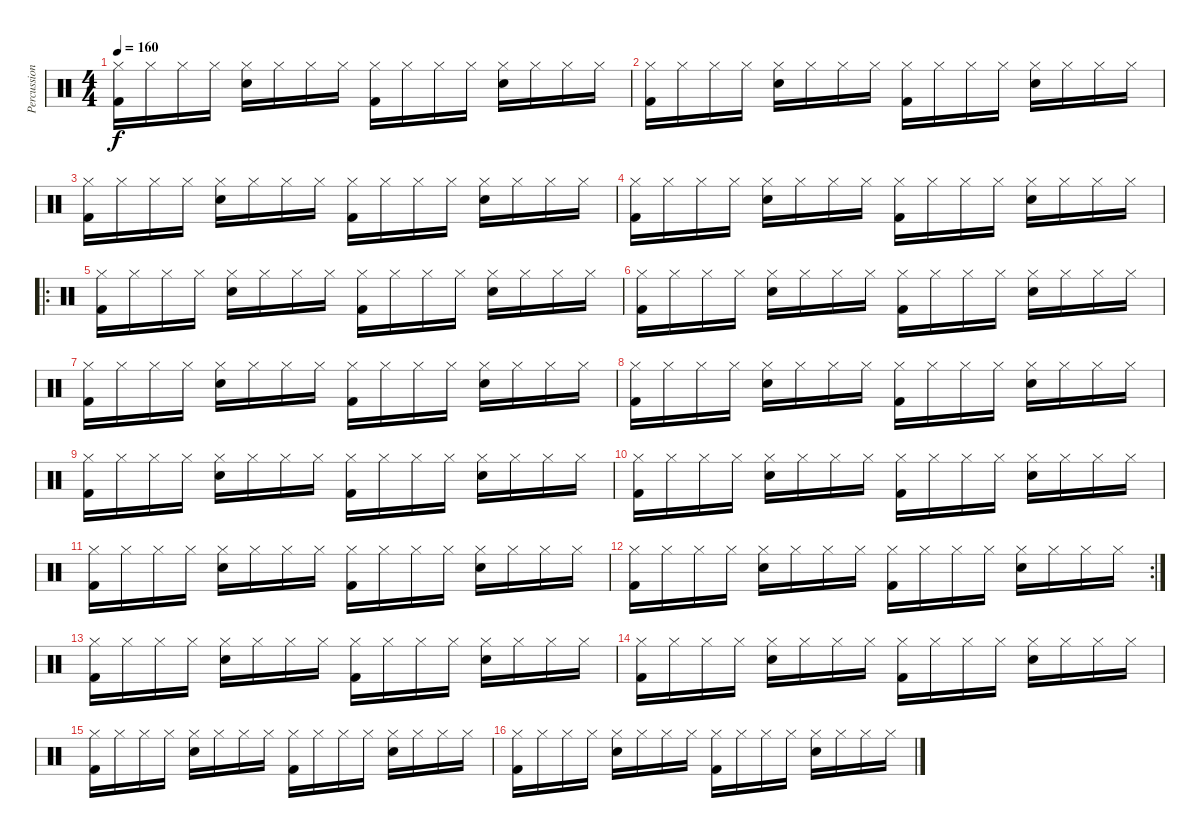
\track ("Percussion" "Percussion") {instrument percussion}
\staff {score}
\articulation defaults
\ts (4 4)
\tempo 160
\clef neutral
\ks c
("Hi-Hat (closed)" "Kick (hit) 2").16{dy f} "Hi-Hat (closed)".16 "Hi-Hat (closed)".16 "Hi-Hat (closed)".16 ("Hi-Hat (closed)" "Snare (hit) 2").16 "Hi-Hat (closed)".16 "Hi-Hat (closed)".16 "Hi-Hat (closed)".16 ("Hi-Hat (closed)" "Kick (hit) 2").16 "Hi-Hat (closed)".16 "Hi-Hat (closed)".16 "Hi-Hat (closed)".16 ("Hi-Hat (closed)" "Snare (hit) 2").16 "Hi-Hat (closed)".16 "Hi-Hat (closed)".16 "Hi-Hat (closed)".16 |
("Hi-Hat (closed)" "Kick (hit) 2").16 "Hi-Hat (closed)".16 "Hi-Hat (closed)".16 "Hi-Hat (closed)".16 ("Hi-Hat (closed)" "Snare (hit) 2").16 "Hi-Hat (closed)".16 "Hi-Hat (closed)".16 "Hi-Hat (closed)".16 ("Hi-Hat (closed)" "Kick (hit) 2").16 "Hi-Hat (closed)".16 "Hi-Hat (closed)".16 "Hi-Hat (closed)".16 ("Hi-Hat (closed)" "Snare (hit) 2").16 "Hi-Hat (closed)".16 "Hi-Hat (closed)".16 "Hi-Hat (closed)".16 |
("Hi-Hat (closed)" "Kick (hit) 2").16 "Hi-Hat (closed)".16 "Hi-Hat (closed)".16 "Hi-Hat (closed)".16 ("Hi-Hat (closed)" "Snare (hit) 2").16 "Hi-Hat (closed)".16 "Hi-Hat (closed)".16 "Hi-Hat (closed)".16 ("Hi-Hat (closed)" "Kick (hit) 2").16 "Hi-Hat (closed)".16 "Hi-Hat (closed)".16 "Hi-Hat (closed)".16 ("Hi-Hat (closed)" "Snare (hit) 2").16 "Hi-Hat (closed)".16 "Hi-Hat (closed)".16 "Hi-Hat (closed)".16 |
("Hi-Hat (closed)" "Kick (hit) 2").16 "Hi-Hat (closed)".16 "Hi-Hat (closed)".16 "Hi-Hat (closed)".16 ("Hi-Hat (closed)" "Snare (hit) 2").16 "Hi-Hat (closed)".16 "Hi-Hat (closed)".16 "Hi-Hat (closed)".16 ("Hi-Hat (closed)" "Kick (hit) 2").16 "Hi-Hat (closed)".16 "Hi-Hat (closed)".16 "Hi-Hat (closed)".16 ("Hi-Hat (closed)" "Snare (hit) 2").16 "Hi-Hat (closed)".16 "Hi-Hat (closed)".16 "Hi-Hat (closed)".16 |
\ro
("Hi-Hat (closed)" "Kick (hit) 2").16 "Hi-Hat (closed)".16 "Hi-Hat (closed)".16 "Hi-Hat (closed)".16 ("Hi-Hat (closed)" "Snare (hit) 2").16 "Hi-Hat (closed)".16 "Hi-Hat (closed)".16 "Hi-Hat (closed)".16 ("Hi-Hat (closed)" "Kick (hit) 2").16 "Hi-Hat (closed)".16 "Hi-Hat (closed)".16 "Hi-Hat (closed)".16 ("Hi-Hat (closed)" "Snare (hit) 2").16 "Hi-Hat (closed)".16 "Hi-Hat (closed)".16 "Hi-Hat (closed)".16 |
("Hi-Hat (closed)" "Kick (hit) 2").16 "Hi-Hat (closed)".16 "Hi-Hat (closed)".16 "Hi-Hat (closed)".16 ("Hi-Hat (closed)" "Snare (hit) 2").16 "Hi-Hat (closed)".16 "Hi-Hat (closed)".16 "Hi-Hat (closed)".16 ("Hi-Hat (closed)" "Kick (hit) 2").16 "Hi-Hat (closed)".16 "Hi-Hat (closed)".16 "Hi-Hat (closed)".16 ("Hi-Hat (closed)" "Snare (hit) 2").16 "Hi-Hat (closed)".16 "Hi-Hat (closed)".16 "Hi-Hat (closed)".16 |
("Hi-Hat (closed)" "Kick (hit) 2").16 "Hi-Hat (closed)".16 "Hi-Hat (closed)".16 "Hi-Hat (closed)".16 ("Hi-Hat (closed)" "Snare (hit) 2").16 "Hi-Hat (closed)".16 "Hi-Hat (closed)".16 "Hi-Hat (closed)".16 ("Hi-Hat (closed)" "Kick (hit) 2").16 "Hi-Hat (closed)".16 "Hi-Hat (closed)".16 "Hi-Hat (closed)".16 ("Hi-Hat (closed)" "Snare (hit) 2").16 "Hi-Hat (closed)".16 "Hi-Hat (closed)".16 "Hi-Hat (closed)".16 |
("Hi-Hat (closed)" "Kick (hit) 2").16 "Hi-Hat (closed)".16 "Hi-Hat (closed)".16 "Hi-Hat (closed)".16 ("Hi-Hat (closed)" "Snare (hit) 2").16 "Hi-Hat (closed)".16 "Hi-Hat (closed)".16 "Hi-Hat (closed)".16 ("Hi-Hat (closed)" "Kick (hit) 2").16 "Hi-Hat (closed)".16 "Hi-Hat (closed)".16 "Hi-Hat (closed)".16 ("Hi-Hat (closed)" "Snare (hit) 2").16 "Hi-Hat (closed)".16 "Hi-Hat (closed)".16 "Hi-Hat (closed)".16 |
("Hi-Hat (closed)" "Kick (hit) 2").16 "Hi-Hat (closed)".16 "Hi-Hat (closed)".16 "Hi-Hat (closed)".16 ("Hi-Hat (closed)" "Snare (hit) 2").16 "Hi-Hat (closed)".16 "Hi-Hat (closed)".16 "Hi-Hat (closed)".16 ("Hi-Hat (closed)" "Kick (hit) 2").16 "Hi-Hat (closed)".16 "Hi-Hat (closed)".16 "Hi-Hat (closed)".16 ("Hi-Hat (closed)" "Snare (hit) 2").16 "Hi-Hat (closed)".16 "Hi-Hat (closed)".16 "Hi-Hat (closed)".16 |
("Hi-Hat (closed)" "Kick (hit) 2").16 "Hi-Hat (closed)".16 "Hi-Hat (closed)".16 "Hi-Hat (closed)".16 ("Hi-Hat (closed)" "Snare (hit) 2").16 "Hi-Hat (closed)".16 "Hi-Hat (closed)".16 "Hi-Hat (closed)".16 ("Hi-Hat (closed)" "Kick (hit) 2").16 "Hi-Hat (closed)".16 "Hi-Hat (closed)".16 "Hi-Hat (closed)".16 ("Hi-Hat (closed)" "Snare (hit) 2").16 "Hi-Hat (closed)".16 "Hi-Hat (closed)".16 "Hi-Hat (closed)".16 |
("Hi-Hat (closed)" "Kick (hit) 2").16 "Hi-Hat (closed)".16 "Hi-Hat (closed)".16 "Hi-Hat (closed)".16 ("Hi-Hat (closed)" "Snare (hit) 2").16 "Hi-Hat (closed)".16 "Hi-Hat (closed)".16 "Hi-Hat (closed)".16 ("Hi-Hat (closed)" "Kick (hit) 2").16 "Hi-Hat (closed)".16 "Hi-Hat (closed)".16 "Hi-Hat (closed)".16 ("Hi-Hat (closed)" "Snare (hit) 2").16 "Hi-Hat (closed)".16 "Hi-Hat (closed)".16 "Hi-Hat (closed)".16 |
\rc 2
("Hi-Hat (closed)" "Kick (hit) 2").16 "Hi-Hat (closed)".16 "Hi-Hat (closed)".16 "Hi-Hat (closed)".16 ("Hi-Hat (closed)" "Snare (hit) 2").16 "Hi-Hat (closed)".16 "Hi-Hat (closed)".16 "Hi-Hat (closed)".16 ("Hi-Hat (closed)" "Kick (hit) 2").16 "Hi-Hat (closed)".16 "Hi-Hat (closed)".16 "Hi-Hat (closed)".16 ("Hi-Hat (closed)" "Snare (hit) 2").16 "Hi-Hat (closed)".16 "Hi-Hat (closed)".16 "Hi-Hat (closed)".16 |
("Hi-Hat (closed)" "Kick (hit) 2").16 "Hi-Hat (closed)".16 "Hi-Hat (closed)".16 "Hi-Hat (closed)".16 ("Hi-Hat (closed)" "Snare (hit) 2").16 "Hi-Hat (closed)".16 "Hi-Hat (closed)".16 "Hi-Hat (closed)".16 ("Hi-Hat (closed)" "Kick (hit) 2").16 "Hi-Hat (closed)".16 "Hi-Hat (closed)".16 "Hi-Hat (closed)".16 ("Hi-Hat (closed)" "Snare (hit) 2").16 "Hi-Hat (closed)".16 "Hi-Hat (closed)".16 "Hi-Hat (closed)".16 |
("Hi-Hat (closed)" "Kick (hit) 2").16 "Hi-Hat (closed)".16 "Hi-Hat (closed)".16 "Hi-Hat (closed)".16 ("Hi-Hat (closed)" "Snare (hit) 2").16 "Hi-Hat (closed)".16 "Hi-Hat (closed)".16 "Hi-Hat (closed)".16 ("Hi-Hat (closed)" "Kick (hit) 2").16 "Hi-Hat (closed)".16 "Hi-Hat (closed)".16 "Hi-Hat (closed)".16 ("Hi-Hat (closed)" "Snare (hit) 2").16 "Hi-Hat (closed)".16 "Hi-Hat (closed)".16 "Hi-Hat (closed)".16 |
("Hi-Hat (closed)" "Kick (hit) 2").16 "Hi-Hat (closed)".16 "Hi-Hat (closed)".16 "Hi-Hat (closed)".16 ("Hi-Hat (closed)" "Snare (hit) 2").16 "Hi-Hat (closed)".16 "Hi-Hat (closed)".16 "Hi-Hat (closed)".16 ("Hi-Hat (closed)" "Kick (hit) 2").16 "Hi-Hat (closed)".16 "Hi-Hat (closed)".16 "Hi-Hat (closed)".16 ("Hi-Hat (closed)" "Snare (hit) 2").16 "Hi-Hat (closed)".16 "Hi-Hat (closed)".16 "Hi-Hat (closed)".16 |
("Hi-Hat (closed)" "Kick (hit) 2").16 "Hi-Hat (closed)".16 "Hi-Hat (closed)".16 "Hi-Hat (closed)".16 ("Hi-Hat (closed)" "Snare (hit) 2").16 "Hi-Hat (closed)".16 "Hi-Hat (closed)".16 "Hi-Hat (closed)".16 ("Hi-Hat (closed)" "Kick (hit) 2").16 "Hi-Hat (closed)".16 "Hi-Hat (closed)".16 "Hi-Hat (closed)".16 ("Hi-Hat (closed)" "Snare (hit) 2").16 "Hi-Hat (closed)".16 "Hi-Hat (closed)".16 "Hi-Hat (closed)".16
